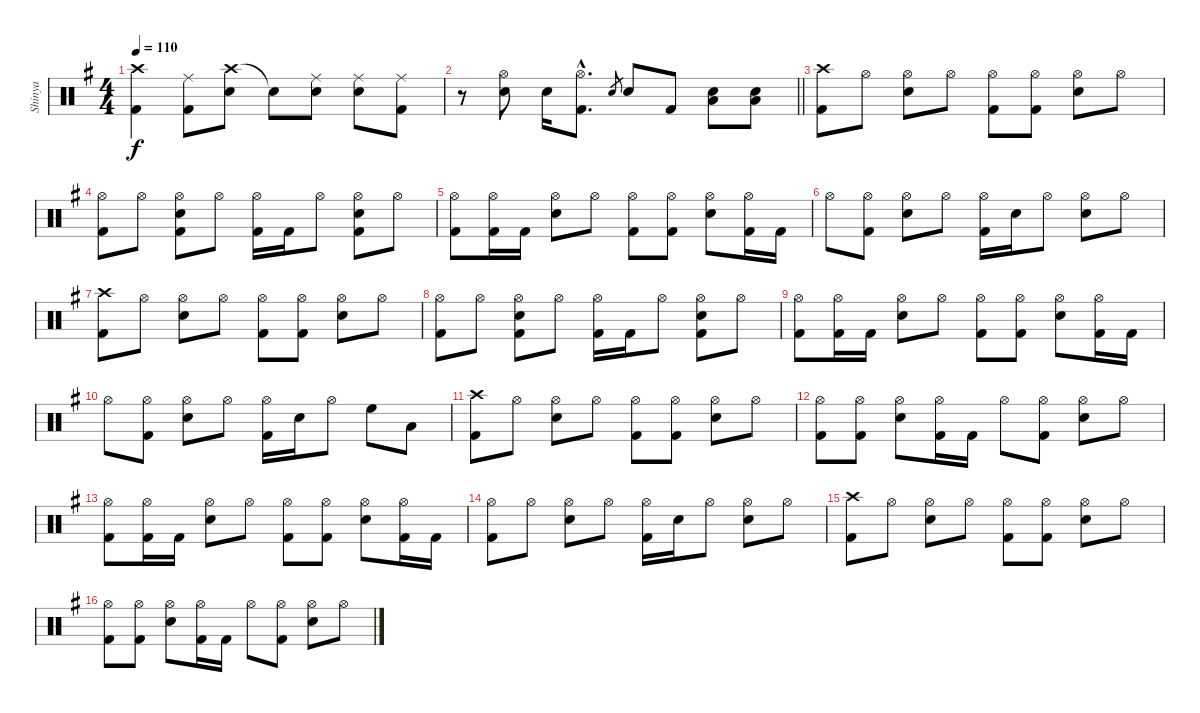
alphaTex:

\track ("Shinya" "Shinya") {instrument percussion}
\staff {score}
\articulation defaults
\ts (4 4)
\tempo 110
\clef neutral
\ks g
("Crash high (hit)" "Kick (hit) 2").4{dy f} ("Ride (middle)" "Kick (hit) 2").8 ("Crash high (hit)" "Electric Snare (hit)").8 "Snare (hit)"{t}.8 ("Ride (middle)" "Electric Snare (hit)").8 ("Ride (middle)" "Electric Snare (hit)").8 ("Ride (middle)" "Kick (hit) 2").8 |
\barLineRight lightlight
r.8 ("Hi-Hat (open)" "Electric Snare (hit)").8 "Electric Snare (hit)".16 ("Hi-Hat (open)"{hac} "Kick (hit) 2"{hac}).8{d} "Electric Snare (hit)".8{gr} "Electric Snare (hit)".8 "Kick (hit) 2".8 ("Electric Snare (hit)" "Low Floor Tom (hit)").8 ("Electric Snare (hit)" "Low Floor Tom (hit)").8 |
("Crash high (hit)" "Kick (hit) 2").8 "Hi-Hat (open)".8 ("Hi-Hat (open)" "Electric Snare (hit)").8 "Hi-Hat (open)".8 ("Hi-Hat (open)" "Kick (hit) 2").8 ("Hi-Hat (open)" "Kick (hit) 2").8 ("Hi-Hat (open)" "Electric Snare (hit)").8 "Hi-Hat (open)".8 |
("Hi-Hat (open)" "Kick (hit) 2").8 "Hi-Hat (open)".8 ("Hi-Hat (open)" "Electric Snare (hit)" "Kick (hit) 2").8 "Hi-Hat (open)".8 ("Hi-Hat (open)" "Kick (hit) 2").16 "Kick (hit) 2".16 "Hi-Hat (open)".8 ("Hi-Hat (open)" "Electric Snare (hit)" "Kick (hit) 2").8 "Hi-Hat (open)".8 |
("Hi-Hat (open)" "Kick (hit) 2").8 ("Hi-Hat (open)" "Kick (hit) 2").16 "Kick (hit) 2".16 ("Hi-Hat (open)" "Electric Snare (hit)").8 "Hi-Hat (open)".8 ("Hi-Hat (open)" "Kick (hit) 2").8 ("Hi-Hat (open)" "Kick (hit) 2").8 ("Hi-Hat (open)" "Electric Snare (hit)").8 ("Hi-Hat (open)" "Kick (hit) 2").16 "Kick (hit) 2".16 |
"Hi-Hat (open)".8 ("Hi-Hat (open)" "Kick (hit) 2").8 ("Hi-Hat (open)" "Electric Snare (hit)").8 "Hi-Hat (open)".8 ("Hi-Hat (open)" "Kick (hit) 2").16 "Electric Snare (hit)".16 "Hi-Hat (open)".8 ("Hi-Hat (open)" "Electric Snare (hit)").8 "Hi-Hat (open)".8 |
("Crash high (hit)" "Kick (hit) 2").8 "Hi-Hat (open)".8 ("Hi-Hat (open)" "Electric Snare (hit)").8 "Hi-Hat (open)".8 ("Hi-Hat (open)" "Kick (hit) 2").8 ("Hi-Hat (open)" "Kick (hit) 2").8 ("Hi-Hat (open)" "Electric Snare (hit)").8 "Hi-Hat (open)".8 |
("Hi-Hat (open)" "Kick (hit) 2").8 "Hi-Hat (open)".8 ("Hi-Hat (open)" "Electric Snare (hit)" "Kick (hit) 2").8 "Hi-Hat (open)".8 ("Hi-Hat (open)" "Kick (hit) 2").16 "Kick (hit) 2".16 "Hi-Hat (open)".8 ("Hi-Hat (open)" "Electric Snare (hit)" "Kick (hit) 2").8 "Hi-Hat (open)".8 |
("Hi-Hat (open)" "Kick (hit) 2").8 ("Hi-Hat (open)" "Kick (hit) 2").16 "Kick (hit) 2".16 ("Hi-Hat (open)" "Electric Snare (hit)").8 "Hi-Hat (open)".8 ("Hi-Hat (open)" "Kick (hit) 2").8 ("Hi-Hat (open)" "Kick (hit) 2").8 ("Hi-Hat (open)" "Electric Snare (hit)").8 ("Hi-Hat (open)" "Kick (hit) 2").16 "Kick (hit) 2".16 |
"Hi-Hat (open)".8 ("Hi-Hat (open)" "Kick (hit) 2").8 ("Hi-Hat (open)" "Electric Snare (hit)").8 "Hi-Hat (open)".8 ("Hi-Hat (open)" "Kick (hit) 2").16 "Electric Snare (hit)".16 "Hi-Hat (open)".8 "High Floor Tom (hit)".8 "Low Tom (hit)".8 |
("Crash high (hit)" "Kick (hit) 2").8 "Hi-Hat (open)".8 ("Hi-Hat (open)" "Electric Snare (hit)").8 "Hi-Hat (open)".8 ("Hi-Hat (open)" "Kick (hit) 2").8 ("Hi-Hat (open)" "Kick (hit) 2").8 ("Hi-Hat (open)" "Electric Snare (hit)").8 "Hi-Hat (open)".8 |
("Hi-Hat (open)" "Kick (hit) 2").8 ("Hi-Hat (open)" "Kick (hit) 2").8 ("Hi-Hat (open)" "Electric Snare (hit)").8 ("Hi-Hat (open)" "Kick (hit) 2").16 "Kick (hit) 2".16 "Hi-Hat (open)".8 ("Hi-Hat (open)" "Kick (hit) 2").8 ("Hi-Hat (open)" "Electric Snare (hit)").8 "Hi-Hat (open)".8 |
("Hi-Hat (open)" "Kick (hit) 2").8 ("Hi-Hat (open)" "Kick (hit) 2").16 "Kick (hit) 2".16 ("Hi-Hat (open)" "Electric Snare (hit)").8 "Hi-Hat (open)".8 ("Hi-Hat (open)" "Kick (hit) 2").8 ("Hi-Hat (open)" "Kick (hit) 2").8 ("Hi-Hat (open)" "Electric Snare (hit)").8 ("Hi-Hat (open)" "Kick (hit) 2").16 "Kick (hit) 2".16 |
("Hi-Hat (open)" "Kick (hit) 2").8 "Hi-Hat (open)".8 ("Hi-Hat (open)" "Electric Snare (hit)").8 "Hi-Hat (open)".8 ("Hi-Hat (open)" "Kick (hit) 2").16 "Electric Snare (hit)".16 "Hi-Hat (open)".8 ("Hi-Hat (open)" "Electric Snare (hit)").8 "Hi-Hat (open)".8 |
("Crash high (hit)" "Kick (hit) 2").8 "Hi-Hat (open)".8 ("Hi-Hat (open)" "Electric Snare (hit)").8 "Hi-Hat (open)".8 ("Hi-Hat (open)" "Kick (hit) 2").8 ("Hi-Hat (open)" "Kick (hit) 2").8 ("Hi-Hat (open)" "Electric Snare (hit)").8 "Hi-Hat (open)".8 |
("Hi-Hat (open)" "Kick (hit) 2").8 ("Hi-Hat (open)" "Kick (hit) 2").8 ("Hi-Hat (open)" "Electric Snare (hit)").8 ("Hi-Hat (open)" "Kick (hit) 2").16 "Kick (hit) 2".16 "Hi-Hat (open)".8 ("Hi-Hat (open)" "Kick (hit) 2").8 ("Hi-Hat (open)" "Electric Snare (hit)").8 "Hi-Hat (open)".8
